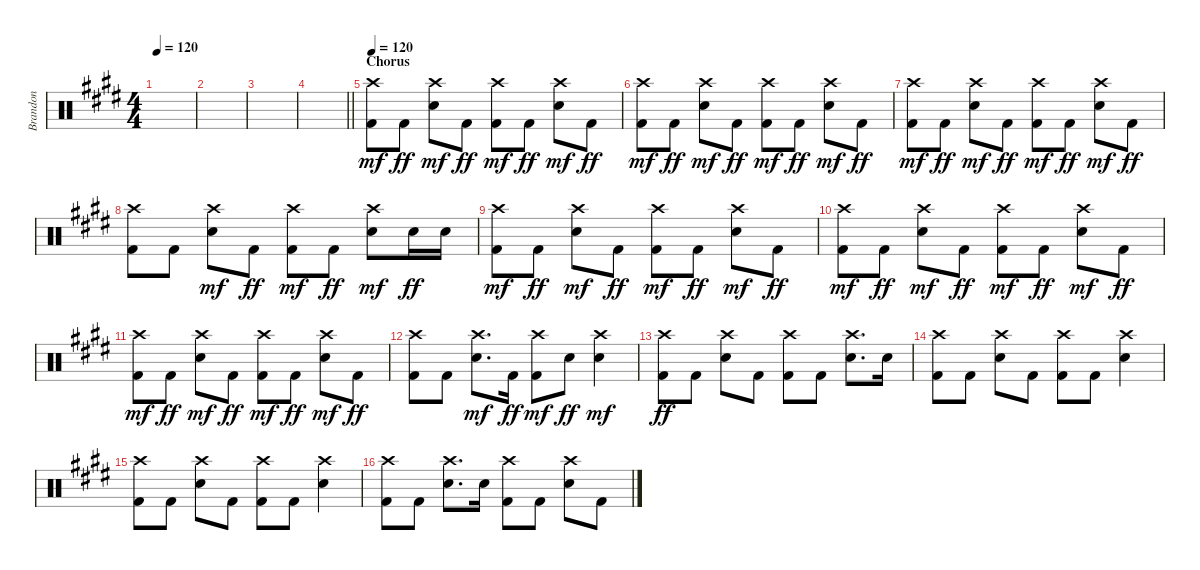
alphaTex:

\track ("Brandon" "Brandon") {instrument percussion}
\staff {score}
\articulation defaults
\ts (4 4)
\tempo 120
\clef neutral
\ks e
|
|
|
\barLineRight lightlight
|
\section ("" "Chorus")
\tempo 120
("Kick (hit) 2" "Crash high (hit)").8{dy mf} "Kick (hit) 2".8{dy ff} ("Snare (hit) 2" "Crash high (hit)").8{dy mf} "Kick (hit) 2".8{dy ff} ("Kick (hit) 2" "Crash high (hit)").8{dy mf} "Kick (hit) 2".8{dy ff} ("Snare (hit) 2" "Crash high (hit)").8{dy mf} "Kick (hit) 2".8{dy ff} |
("Kick (hit) 2" "Crash high (hit)").8{dy mf} "Kick (hit) 2".8{dy ff} ("Snare (hit) 2" "Crash high (hit)").8{dy mf} "Kick (hit) 2".8{dy ff} ("Kick (hit) 2" "Crash high (hit)").8{dy mf} "Kick (hit) 2".8{dy ff} ("Snare (hit) 2" "Crash high (hit)").8{dy mf} "Kick (hit) 2".8{dy ff} |
("Kick (hit) 2" "Crash high (hit)").8{dy mf} "Kick (hit) 2".8{dy ff} ("Snare (hit) 2" "Crash high (hit)").8{dy mf} "Kick (hit) 2".8{dy ff} ("Kick (hit) 2" "Crash high (hit)").8{dy mf} "Kick (hit) 2".8{dy ff} ("Snare (hit) 2" "Crash high (hit)").8{dy mf} "Kick (hit) 2".8{dy ff} |
("Kick (hit) 2" "Crash high (hit)").8 "Kick (hit) 2".8 ("Snare (hit) 2" "Crash high (hit)").8{dy mf} "Kick (hit) 2".8{dy ff} ("Kick (hit) 2" "Crash high (hit)").8{dy mf} "Kick (hit) 2".8{dy ff} ("Snare (hit) 2" "Crash high (hit)").8{dy mf} "Snare (hit) 2".16{dy ff} "Snare (hit) 2".16 |
("Kick (hit) 2" "Crash high (hit)").8{dy mf} "Kick (hit) 2".8{dy ff} ("Snare (hit) 2" "Crash high (hit)").8{dy mf} "Kick (hit) 2".8{dy ff} ("Kick (hit) 2" "Crash high (hit)").8{dy mf} "Kick (hit) 2".8{dy ff} ("Snare (hit) 2" "Crash high (hit)").8{dy mf} "Kick (hit) 2".8{dy ff} |
("Kick (hit) 2" "Crash high (hit)").8{dy mf} "Kick (hit) 2".8{dy ff} ("Snare (hit) 2" "Crash high (hit)").8{dy mf} "Kick (hit) 2".8{dy ff} ("Kick (hit) 2" "Crash high (hit)").8{dy mf} "Kick (hit) 2".8{dy ff} ("Snare (hit) 2" "Crash high (hit)").8{dy mf} "Kick (hit) 2".8{dy ff} |
("Kick (hit) 2" "Crash high (hit)").8{dy mf} "Kick (hit) 2".8{dy ff} ("Snare (hit) 2" "Crash high (hit)").8{dy mf} "Kick (hit) 2".8{dy ff} ("Kick (hit) 2" "Crash high (hit)").8{dy mf} "Kick (hit) 2".8{dy ff} ("Snare (hit) 2" "Crash high (hit)").8{dy mf} "Kick (hit) 2".8{dy ff} |
("Kick (hit) 2" "Crash high (hit)").8 "Kick (hit) 2".8 ("Snare (hit) 2" "Crash high (hit)").8{d dy mf} "Kick (hit) 2".16{dy ff} ("Kick (hit) 2" "Crash high (hit)").8{dy mf} "Snare (hit) 2".8{dy ff} ("Snare (hit) 2" "Crash high (hit)").4{dy mf} |
("Kick (hit) 2" "Crash high (hit)").8{dy ff} "Kick (hit) 2".8 ("Snare (hit) 2" "Crash high (hit)").8 "Kick (hit) 2".8 ("Kick (hit) 2" "Crash high (hit)").8 "Kick (hit) 2".8 ("Snare (hit) 2" "Crash high (hit)").8{d} "Snare (hit) 2".16 |
("Kick (hit) 2" "Crash high (hit)").8 "Kick (hit) 2".8 ("Snare (hit) 2" "Crash high (hit)").8 "Kick (hit) 2".8 ("Kick (hit) 2" "Crash high (hit)").8 "Kick (hit) 2".8 ("Snare (hit) 2" "Crash high (hit)").4 |
("Kick (hit) 2" "Crash high (hit)").8 "Kick (hit) 2".8 ("Snare (hit) 2" "Crash high (hit)").8 "Kick (hit) 2".8 ("Kick (hit) 2" "Crash high (hit)").8 "Kick (hit) 2".8 ("Snare (hit) 2" "Crash high (hit)").4 |
("Kick (hit) 2" "Crash high (hit)").8 "Kick (hit) 2".8 ("Snare (hit) 2" "Crash high (hit)").8{d} "Snare (hit) 2".16 ("Kick (hit) 2" "Crash high (hit)").8 "Kick (hit) 2".8 ("Snare (hit) 2" "Crash high (hit)").8 "Kick (hit) 2".8
